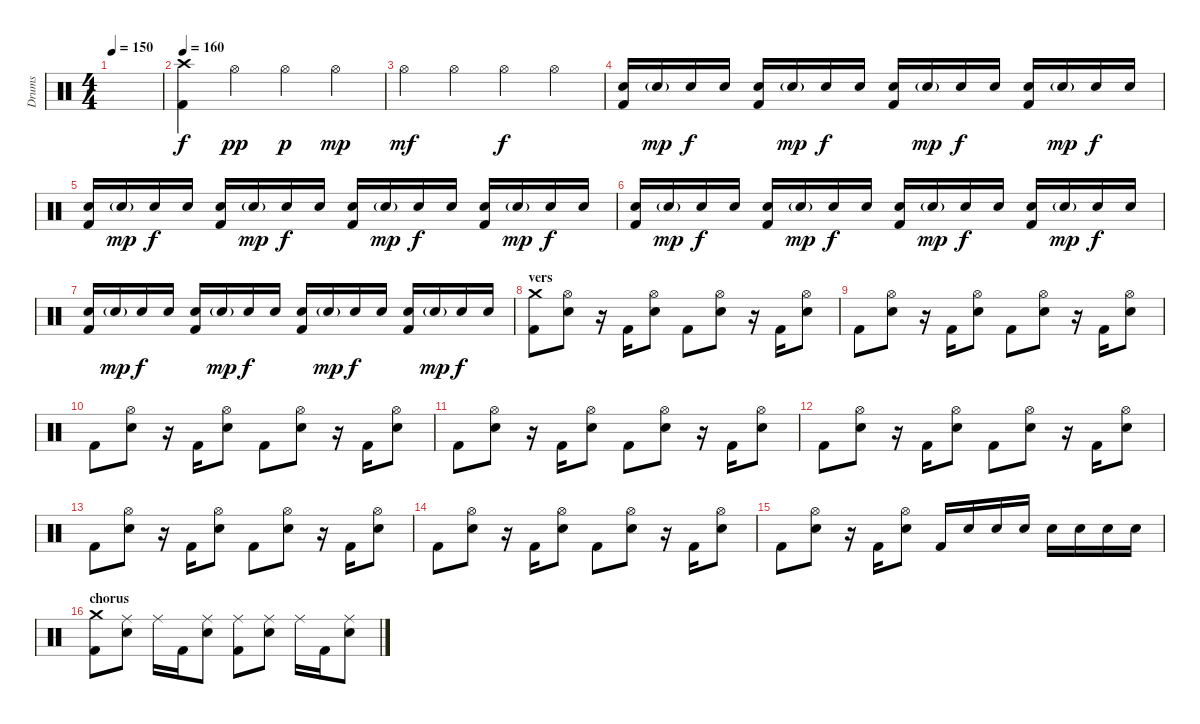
\track ("Drums" "Drums") {instrument percussion}
\staff {score}
\articulation defaults
\ts (4 4)
\tempo 150
\clef neutral
\ks c
|
\tempo 160
("Crash high (hit)" "Kick (hit) 2").4 "Hi-Hat (open)".4{dy pp} "Hi-Hat (open)".4{dy p} "Hi-Hat (open)".4{dy mp} |
"Hi-Hat (open)".4{dy mf} "Hi-Hat (open)".4 "Hi-Hat (open)".4{dy f} "Hi-Hat (open)".4 |
("Electric Snare (hit)" "Kick (hit) 2").16 "Electric Snare (hit)"{g}.16{dy mp} "Electric Snare (hit)".16{dy f} "Electric Snare (hit)".16 ("Electric Snare (hit)" "Kick (hit) 2").16 "Electric Snare (hit)"{g}.16{dy mp} "Electric Snare (hit)".16{dy f} "Electric Snare (hit)".16 ("Electric Snare (hit)" "Kick (hit) 2").16 "Electric Snare (hit)"{g}.16{dy mp} "Electric Snare (hit)".16{dy f} "Electric Snare (hit)".16 ("Electric Snare (hit)" "Kick (hit) 2").16 "Electric Snare (hit)"{g}.16{dy mp} "Electric Snare (hit)".16{dy f} "Electric Snare (hit)".16 |
("Electric Snare (hit)" "Kick (hit) 2").16 "Electric Snare (hit)"{g}.16{dy mp} "Electric Snare (hit)".16{dy f} "Electric Snare (hit)".16 ("Electric Snare (hit)" "Kick (hit) 2").16 "Electric Snare (hit)"{g}.16{dy mp} "Electric Snare (hit)".16{dy f} "Electric Snare (hit)".16 ("Electric Snare (hit)" "Kick (hit) 2").16 "Electric Snare (hit)"{g}.16{dy mp} "Electric Snare (hit)".16{dy f} "Electric Snare (hit)".16 ("Electric Snare (hit)" "Kick (hit) 2").16 "Electric Snare (hit)"{g}.16{dy mp} "Electric Snare (hit)".16{dy f} "Electric Snare (hit)".16 |
("Electric Snare (hit)" "Kick (hit) 2").16 "Electric Snare (hit)"{g}.16{dy mp} "Electric Snare (hit)".16{dy f} "Electric Snare (hit)".16 ("Electric Snare (hit)" "Kick (hit) 2").16 "Electric Snare (hit)"{g}.16{dy mp} "Electric Snare (hit)".16{dy f} "Electric Snare (hit)".16 ("Electric Snare (hit)" "Kick (hit) 2").16 "Electric Snare (hit)"{g}.16{dy mp} "Electric Snare (hit)".16{dy f} "Electric Snare (hit)".16 ("Electric Snare (hit)" "Kick (hit) 2").16 "Electric Snare (hit)"{g}.16{dy mp} "Electric Snare (hit)".16{dy f} "Electric Snare (hit)".16 |
("Electric Snare (hit)" "Kick (hit) 2").16 "Electric Snare (hit)"{g}.16{dy mp} "Electric Snare (hit)".16{dy f} "Electric Snare (hit)".16 ("Electric Snare (hit)" "Kick (hit) 2").16 "Electric Snare (hit)"{g}.16{dy mp} "Electric Snare (hit)".16{dy f} "Electric Snare (hit)".16 ("Electric Snare (hit)" "Kick (hit) 2").16 "Electric Snare (hit)"{g}.16{dy mp} "Electric Snare (hit)".16{dy f} "Electric Snare (hit)".16 ("Electric Snare (hit)" "Kick (hit) 2").16 "Electric Snare (hit)"{g}.16{dy mp} "Electric Snare (hit)".16{dy f} "Electric Snare (hit)".16 |
\section ("" "vers")
("Crash medium (hit)" "Kick (hit) 2").8 ("Hi-Hat (open)" "Electric Snare (hit)").8 r.16 "Kick (hit) 2".16 ("Hi-Hat (open)" "Electric Snare (hit)").8 "Kick (hit) 2".8 ("Hi-Hat (open)" "Electric Snare (hit)").8 r.16 "Kick (hit) 2".16 ("Hi-Hat (open)" "Electric Snare (hit)").8 |
"Kick (hit) 2".8 ("Hi-Hat (open)" "Electric Snare (hit)").8 r.16 "Kick (hit) 2".16 ("Hi-Hat (open)" "Electric Snare (hit)").8 "Kick (hit) 2".8 ("Hi-Hat (open)" "Electric Snare (hit)").8 r.16 "Kick (hit) 2".16 ("Hi-Hat (open)" "Electric Snare (hit)").8 |
"Kick (hit) 2".8 ("Hi-Hat (open)" "Electric Snare (hit)").8 r.16 "Kick (hit) 2".16 ("Hi-Hat (open)" "Electric Snare (hit)").8 "Kick (hit) 2".8 ("Hi-Hat (open)" "Electric Snare (hit)").8 r.16 "Kick (hit) 2".16 ("Hi-Hat (open)" "Electric Snare (hit)").8 |
"Kick (hit) 2".8 ("Hi-Hat (open)" "Electric Snare (hit)").8 r.16 "Kick (hit) 2".16 ("Hi-Hat (open)" "Electric Snare (hit)").8 "Kick (hit) 2".8 ("Hi-Hat (open)" "Electric Snare (hit)").8 r.16 "Kick (hit) 2".16 ("Hi-Hat (open)" "Electric Snare (hit)").8 |
"Kick (hit) 2".8 ("Hi-Hat (open)" "Electric Snare (hit)").8 r.16 "Kick (hit) 2".16 ("Hi-Hat (open)" "Electric Snare (hit)").8 "Kick (hit) 2".8 ("Hi-Hat (open)" "Electric Snare (hit)").8 r.16 "Kick (hit) 2".16 ("Hi-Hat (open)" "Electric Snare (hit)").8 |
"Kick (hit) 2".8 ("Hi-Hat (open)" "Electric Snare (hit)").8 r.16 "Kick (hit) 2".16 ("Hi-Hat (open)" "Electric Snare (hit)").8 "Kick (hit) 2".8 ("Hi-Hat (open)" "Electric Snare (hit)").8 r.16 "Kick (hit) 2".16 ("Hi-Hat (open)" "Electric Snare (hit)").8 |
"Kick (hit) 2".8 ("Hi-Hat (open)" "Electric Snare (hit)").8 r.16 "Kick (hit) 2".16 ("Hi-Hat (open)" "Electric Snare (hit)").8 "Kick (hit) 2".8 ("Hi-Hat (open)" "Electric Snare (hit)").8 r.16 "Kick (hit) 2".16 ("Hi-Hat (open)" "Electric Snare (hit)").8 |
"Kick (hit) 2".8 ("Hi-Hat (open)" "Electric Snare (hit)").8 r.16 "Kick (hit) 2".16 ("Hi-Hat (open)" "Electric Snare (hit)").8 "Kick (hit) 2".16 "Electric Snare (hit)".16 "Electric Snare (hit)".16 "Electric Snare (hit)".16 "Electric Snare (hit)".16 "Electric Snare (hit)".16 "Electric Snare (hit)".16 "Electric Snare (hit)".16 |
\section ("" "chorus")
("Crash medium (hit)" "Kick (hit) 2").8 ("Ride (middle)" "Electric Snare (hit)").8 "Ride (middle)".16 "Kick (hit) 2".16 ("Ride (middle)" "Electric Snare (hit)").8 ("Ride (middle)" "Kick (hit) 2").8 ("Ride (middle)" "Electric Snare (hit)").8 "Ride (middle)".16 "Kick (hit) 2".16 ("Ride (middle)" "Electric Snare (hit)").8
